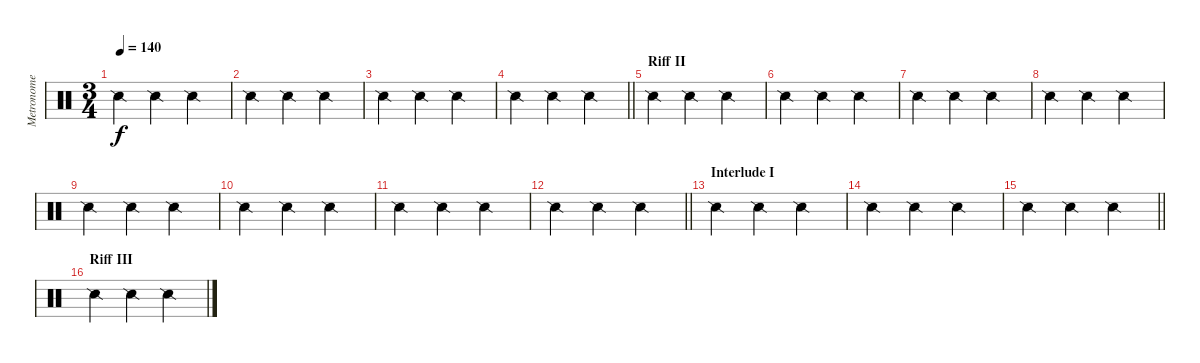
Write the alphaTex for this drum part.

\track ("Metronome" "Metronome") {instrument percussion}
\staff {score}
\articulation defaults
\ts (3 4)
\tempo 140
\clef neutral
\ks c "Snare (side stick) 2".4{dy f} "Snare (side stick) 2".4 "Snare (side stick) 2".4
|
"Snare (side stick) 2".4 "Snare (side stick) 2".4 "Snare (side stick) 2".4 |
"Snare (side stick) 2".4 "Snare (side stick) 2".4 "Snare (side stick) 2".4 |
\barLineRight lightlight "Snare (side stick) 2".4 "Snare (side stick) 2".4 "Snare (side stick) 2".4
|
\section ("" "Riff II")
"Snare (side stick) 2".4 "Snare (side stick) 2".4 "Snare (side stick) 2".4 |
"Snare (side stick) 2".4 "Snare (side stick) 2".4 "Snare (side stick) 2".4 |
"Snare (side stick) 2".4 "Snare (side stick) 2".4 "Snare (side stick) 2".4 |
"Snare (side stick) 2".4 "Snare (side stick) 2".4 "Snare (side stick) 2".4 |
"Snare (side stick) 2".4 "Snare (side stick) 2".4 "Snare (side stick) 2".4 |
"Snare (side stick) 2".4 "Snare (side stick) 2".4 "Snare (side stick) 2".4 |
"Snare (side stick) 2".4 "Snare (side stick) 2".4 "Snare (side stick) 2".4 |
\barLineRight lightlight "Snare (side stick) 2".4 "Snare (side stick) 2".4 "Snare (side stick) 2".4
|
\section ("" "Interlude I")
"Snare (side stick) 2".4 "Snare (side stick) 2".4 "Snare (side stick) 2".4 |
"Snare (side stick) 2".4 "Snare (side stick) 2".4 "Snare (side stick) 2".4 |
\barLineRight lightlight "Snare (side stick) 2".4 "Snare (side stick) 2".4 "Snare (side stick) 2".4
|
\section ("" "Riff III")
"Snare (side stick) 2".4 "Snare (side stick) 2".4 "Snare (side stick) 2".4
